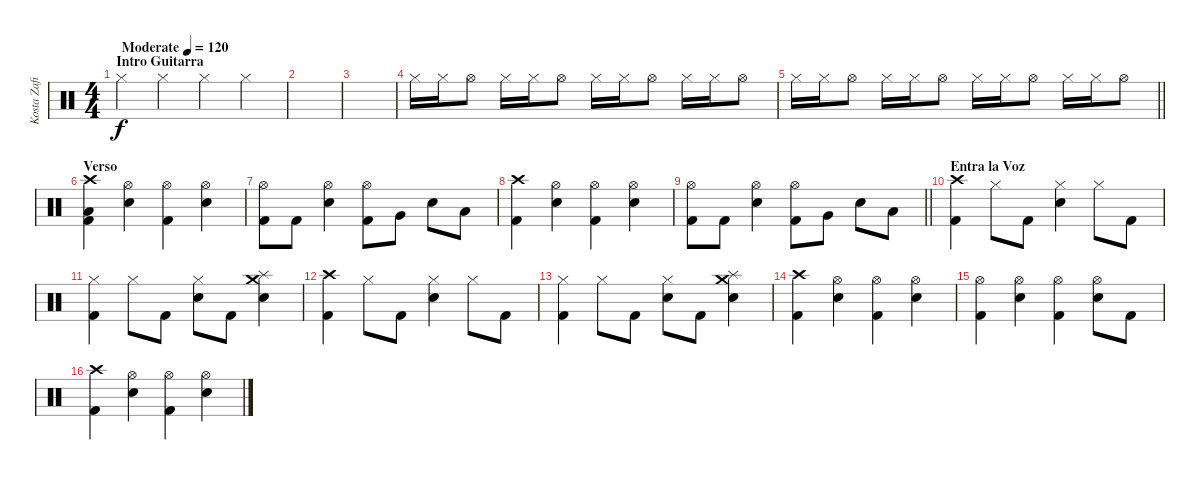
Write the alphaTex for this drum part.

\track ("Kosta Zafiriou" "Kosta Zafi") {instrument percussion}
\staff {score}
\articulation defaults
\ts (4 4)
\section ("" "Intro Guitarra")
\tempo (120 "Moderate")
\clef neutral
\ks c "Hi-Hat (closed)".4{dy f} "Hi-Hat (closed)".4 "Hi-Hat (closed)".4 "Hi-Hat (closed)".4
|
|
|
"Hi-Hat (closed)".16 "Hi-Hat (closed)".16 "Hi-Hat (open)".8 "Hi-Hat (closed)".16 "Hi-Hat (closed)".16 "Hi-Hat (open)".8 "Hi-Hat (closed)".16 "Hi-Hat (closed)".16 "Hi-Hat (open)".8 "Hi-Hat (closed)".16 "Hi-Hat (closed)".16 "Hi-Hat (open)".8 |
\barLineRight lightlight "Hi-Hat (closed)".16 "Hi-Hat (closed)".16 "Hi-Hat (open)".8 "Hi-Hat (closed)".16 "Hi-Hat (closed)".16 "Hi-Hat (open)".8 "Hi-Hat (closed)".16 "Hi-Hat (closed)".16 "Hi-Hat (open)".8 "Hi-Hat (closed)".16 "Hi-Hat (closed)".16 "Hi-Hat (open)".8
|
\section ("" "Verso")
("Crash high (hit)" "Low Floor Tom (hit)" "Kick (hit) 2").4 ("Hi-Hat (open)" "Electric Snare (hit)").4 ("Hi-Hat (open)" "Kick (hit) 2").4 ("Hi-Hat (open)" "Electric Snare (hit)").4 |
("Hi-Hat (open)" "Kick (hit) 2").8 "Kick (hit) 2".8 ("Hi-Hat (open)" "Electric Snare (hit)").4 ("Hi-Hat (open)" "Kick (hit) 2").8 "Very Low Tom (hit)".8 "Electric Snare (hit)".8 "Low Floor Tom (hit)".8 |
("Crash high (hit)" "Kick (hit) 2").4 ("Hi-Hat (open)" "Electric Snare (hit)").4 ("Hi-Hat (open)" "Kick (hit) 2").4 ("Hi-Hat (open)" "Electric Snare (hit)").4 |
\barLineRight lightlight
("Hi-Hat (open)" "Kick (hit) 2").8 "Kick (hit) 2".8 ("Hi-Hat (open)" "Electric Snare (hit)").4 ("Hi-Hat (open)" "Kick (hit) 2").8 "Very Low Tom (hit)".8 "Electric Snare (hit)".8 "Low Floor Tom (hit)".8 |
\section ("" "Entra la Voz")
("Crash high (hit)" "Kick (hit) 2").4 "Hi-Hat (closed)".8 "Kick (hit) 2".8 ("Hi-Hat (closed)" "Electric Snare (hit)").4 "Hi-Hat (closed)".8 "Kick (hit) 2".8 |
("Hi-Hat (closed)" "Kick (hit) 2").4 "Hi-Hat (closed)".8 "Kick (hit) 2".8 ("Hi-Hat (closed)" "Electric Snare (hit)").8 "Kick (hit) 2".8 ("Crash medium (hit)" "Splash (hit)" "Electric Snare (hit)").4 |
("Crash high (hit)" "Kick (hit) 2").4 "Hi-Hat (closed)".8 "Kick (hit) 2".8 ("Hi-Hat (closed)" "Electric Snare (hit)").4 "Hi-Hat (closed)".8 "Kick (hit) 2".8 |
("Hi-Hat (closed)" "Kick (hit) 2").4 "Hi-Hat (closed)".8 "Kick (hit) 2".8 ("Hi-Hat (closed)" "Electric Snare (hit)").8 "Kick (hit) 2".8 ("Crash medium (hit)" "Splash (hit)" "Electric Snare (hit)").4 |
("Crash high (hit)" "Kick (hit) 2").4 ("Hi-Hat (open)" "Electric Snare (hit)").4 ("Hi-Hat (open)" "Kick (hit) 2").4 ("Hi-Hat (open)" "Electric Snare (hit)").4 |
("Hi-Hat (open)" "Kick (hit) 2").4 ("Hi-Hat (open)" "Electric Snare (hit)").4 ("Hi-Hat (open)" "Kick (hit) 2").4 ("Hi-Hat (open)" "Electric Snare (hit)").8 "Kick (hit) 2".8 |
("Crash high (hit)" "Kick (hit) 2").4 ("Hi-Hat (open)" "Electric Snare (hit)").4 ("Hi-Hat (open)" "Kick (hit) 2").4 ("Hi-Hat (open)" "Electric Snare (hit)").4
